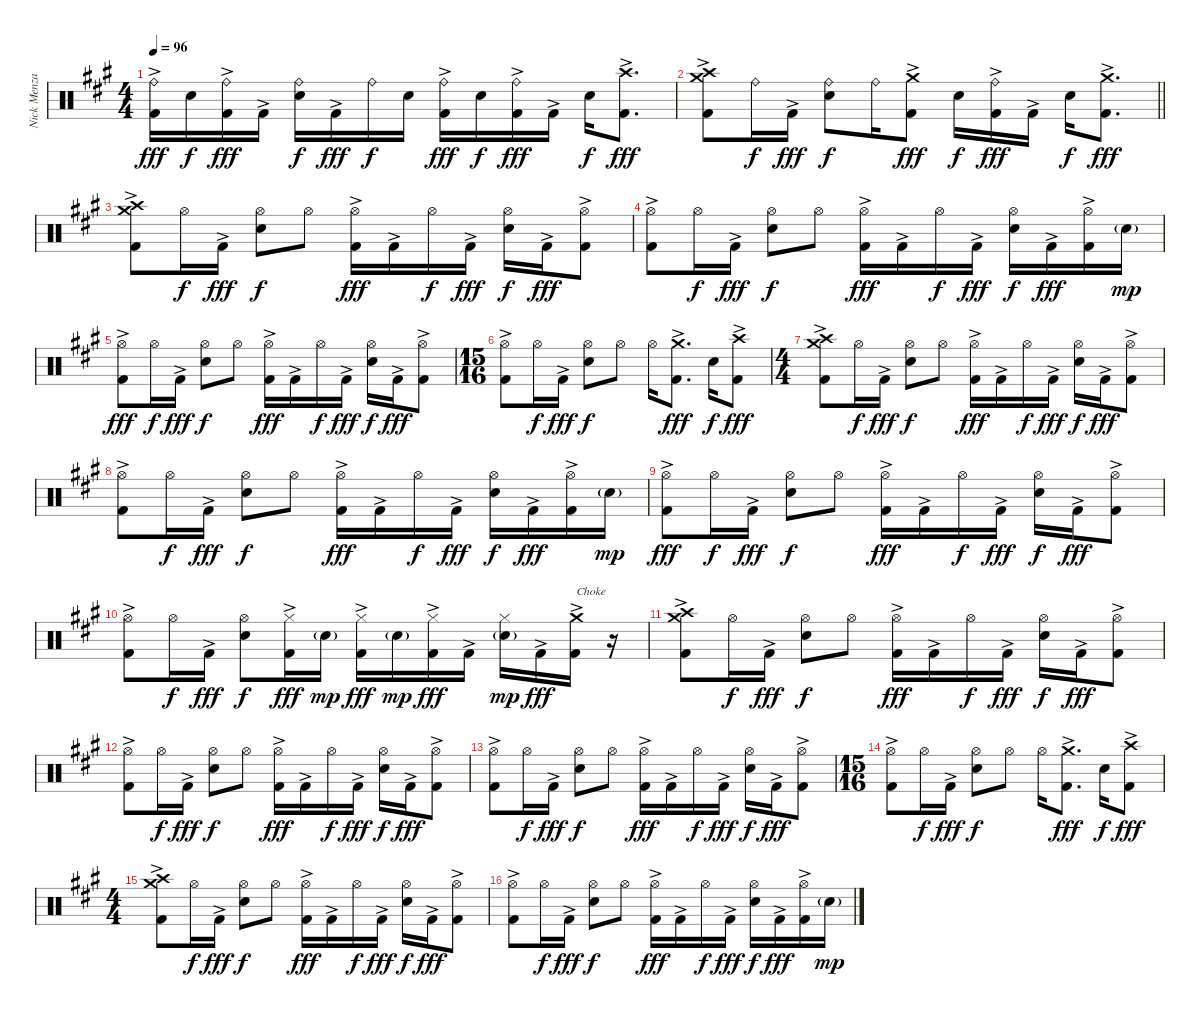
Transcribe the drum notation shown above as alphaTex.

\track ("Nick Menza" "Nick Menza") {instrument percussion}
\staff {score}
\articulation defaults
\ts (4 4)
\tempo 96
\clef neutral
\ks f#minor
("Ride (bell)" "Kick (hit) 2"{ac}).16{dy fff} "Snare (hit) 2".16{dy f} ("Ride (bell)" "Kick (hit) 2"{ac}).16{dy fff} "Kick (hit) 2"{ac}.16 ("Ride (bell)" "Snare (hit) 2").16{dy f} "Kick (hit) 2"{ac}.16{dy fff} "Ride (bell)".16{dy f} "Snare (hit) 2".16 ("Ride (bell)" "Kick (hit) 2"{ac}).16{dy fff} "Snare (hit) 2".16{dy f} ("Ride (bell)" "Kick (hit) 2"{ac}).16{dy fff} "Kick (hit) 2"{ac}.16 "Snare (hit) 2".16{dy f} ("Crash high (hit)" "Kick (hit) 2"{ac}).8{d dy fff} |
\barLineRight lightlight
("Crash high (hit)" "Crash medium (hit)" "Kick (hit) 2"{ac}).8 "Ride (bell)".16{dy f} "Kick (hit) 2"{ac}.16{dy fff} ("Ride (bell)" "Snare (hit) 2").8{dy f} "Ride (bell)".16 ("Crash medium (hit)" "Kick (hit) 2"{ac}).8{dy fff} "Snare (hit) 2".16{dy f} ("Ride (bell)" "Kick (hit) 2"{ac}).16{dy fff} "Kick (hit) 2"{ac}.16 "Snare (hit) 2".16{dy f} ("Crash medium (hit)" "Kick (hit) 2"{ac}).8{d dy fff} |
("Crash high (hit)" "Crash medium (hit)" "Kick (hit) 2"{ac}).8 "Hi-Hat (open)".16{dy f} "Kick (hit) 2"{ac}.16{dy fff} ("Hi-Hat (open)" "Snare (hit) 2").8{dy f} "Hi-Hat (open)".8 ("Hi-Hat (open)" "Kick (hit) 2"{ac}).16{dy fff} "Kick (hit) 2"{ac}.16 "Hi-Hat (open)".16{dy f} "Kick (hit) 2"{ac}.16{dy fff} ("Hi-Hat (open)" "Snare (hit) 2").16{dy f} "Kick (hit) 2"{ac}.16{dy fff} ("Hi-Hat (open)" "Kick (hit) 2"{ac}).8 |
("Hi-Hat (open)" "Kick (hit) 2"{ac}).8 "Hi-Hat (open)".16{dy f} "Kick (hit) 2"{ac}.16{dy fff} ("Hi-Hat (open)" "Snare (hit) 2").8{dy f} "Hi-Hat (open)".8 ("Hi-Hat (open)" "Kick (hit) 2"{ac}).16{dy fff} "Kick (hit) 2"{ac}.16 "Hi-Hat (open)".16{dy f} "Kick (hit) 2"{ac}.16{dy fff} ("Hi-Hat (open)" "Snare (hit) 2").16{dy f} "Kick (hit) 2"{ac}.16{dy fff} ("Hi-Hat (open)" "Kick (hit) 2"{ac}).16 "Snare (hit) 2"{g}.16{dy mp} |
("Hi-Hat (open)" "Kick (hit) 2"{ac}).8{dy fff} "Hi-Hat (open)".16{dy f} "Kick (hit) 2"{ac}.16{dy fff} ("Hi-Hat (open)" "Snare (hit) 2").8{dy f} "Hi-Hat (open)".8 ("Hi-Hat (open)" "Kick (hit) 2"{ac}).16{dy fff} "Kick (hit) 2"{ac}.16 "Hi-Hat (open)".16{dy f} "Kick (hit) 2"{ac}.16{dy fff} ("Hi-Hat (open)" "Snare (hit) 2").16{dy f} "Kick (hit) 2"{ac}.16{dy fff} ("Hi-Hat (open)" "Kick (hit) 2"{ac}).8 |
\ts (15 16)
("Hi-Hat (open)" "Kick (hit) 2"{ac}).8 "Hi-Hat (open)".16{dy f} "Kick (hit) 2"{ac}.16{dy fff} ("Hi-Hat (open)" "Snare (hit) 2").8{dy f} "Hi-Hat (open)".8 "Hi-Hat (open)".16 ("Crash medium (hit)" "Kick (hit) 2"{ac}).8{d dy fff} "Snare (hit) 2".16{dy f} ("Crash high (hit)" "Kick (hit) 2"{ac}).8{dy fff} |
\ts (4 4)
("Crash high (hit)" "Crash medium (hit)" "Kick (hit) 2"{ac}).8 "Hi-Hat (open)".16{dy f} "Kick (hit) 2"{ac}.16{dy fff} ("Hi-Hat (open)" "Snare (hit) 2").8{dy f} "Hi-Hat (open)".8 ("Hi-Hat (open)" "Kick (hit) 2"{ac}).16{dy fff} "Kick (hit) 2"{ac}.16 "Hi-Hat (open)".16{dy f} "Kick (hit) 2"{ac}.16{dy fff} ("Hi-Hat (open)" "Snare (hit) 2").16{dy f} "Kick (hit) 2"{ac}.16{dy fff} ("Hi-Hat (open)" "Kick (hit) 2"{ac}).8 |
("Hi-Hat (open)" "Kick (hit) 2"{ac}).8 "Hi-Hat (open)".16{dy f} "Kick (hit) 2"{ac}.16{dy fff} ("Hi-Hat (open)" "Snare (hit) 2").8{dy f} "Hi-Hat (open)".8 ("Hi-Hat (open)" "Kick (hit) 2"{ac}).16{dy fff} "Kick (hit) 2"{ac}.16 "Hi-Hat (open)".16{dy f} "Kick (hit) 2"{ac}.16{dy fff} ("Hi-Hat (open)" "Snare (hit) 2").16{dy f} "Kick (hit) 2"{ac}.16{dy fff} ("Hi-Hat (open)" "Kick (hit) 2"{ac}).16 "Snare (hit) 2"{g}.16{dy mp} |
("Hi-Hat (open)" "Kick (hit) 2"{ac}).8{dy fff} "Hi-Hat (open)".16{dy f} "Kick (hit) 2"{ac}.16{dy fff} ("Hi-Hat (open)" "Snare (hit) 2").8{dy f} "Hi-Hat (open)".8 ("Hi-Hat (open)" "Kick (hit) 2"{ac}).16{dy fff} "Kick (hit) 2"{ac}.16 "Hi-Hat (open)".16{dy f} "Kick (hit) 2"{ac}.16{dy fff} ("Hi-Hat (open)" "Snare (hit) 2").16{dy f} "Kick (hit) 2"{ac}.16{dy fff} ("Hi-Hat (open)" "Kick (hit) 2"{ac}).8 |
("Hi-Hat (open)" "Kick (hit) 2"{ac}).8 "Hi-Hat (open)".16{dy f} "Kick (hit) 2"{ac}.16{dy fff} ("Hi-Hat (open)" "Snare (hit) 2").8{dy f} ("Hi-Hat (closed)" "Kick (hit) 2"{ac}).16{dy fff} "Snare (hit) 2"{g}.16{dy mp} ("Hi-Hat (closed)" "Kick (hit) 2"{ac}).16{dy fff} "Snare (hit) 2"{g}.16{dy mp} ("Hi-Hat (closed)" "Kick (hit) 2"{ac}).16{dy fff} "Kick (hit) 2"{ac}.16 ("Hi-Hat (closed)" "Snare (hit) 2"{g}).16{dy mp} "Kick (hit) 2"{ac}.16{dy fff} ("Crash medium (hit)" "Kick (hit) 2"{ac}).16{txt "Choke"} r.16 |
("Crash high (hit)" "Crash medium (hit)" "Kick (hit) 2"{ac}).8 "Hi-Hat (open)".16{dy f} "Kick (hit) 2"{ac}.16{dy fff} ("Hi-Hat (open)" "Snare (hit) 2").8{dy f} "Hi-Hat (open)".8 ("Hi-Hat (open)" "Kick (hit) 2"{ac}).16{dy fff} "Kick (hit) 2"{ac}.16 "Hi-Hat (open)".16{dy f} "Kick (hit) 2"{ac}.16{dy fff} ("Hi-Hat (open)" "Snare (hit) 2").16{dy f} "Kick (hit) 2"{ac}.16{dy fff} ("Hi-Hat (open)" "Kick (hit) 2"{ac}).8 |
("Hi-Hat (open)" "Kick (hit) 2"{ac}).8 "Hi-Hat (open)".16{dy f} "Kick (hit) 2"{ac}.16{dy fff} ("Hi-Hat (open)" "Snare (hit) 2").8{dy f} "Hi-Hat (open)".8 ("Hi-Hat (open)" "Kick (hit) 2"{ac}).16{dy fff} "Kick (hit) 2"{ac}.16 "Hi-Hat (open)".16{dy f} "Kick (hit) 2"{ac}.16{dy fff} ("Hi-Hat (open)" "Snare (hit) 2").16{dy f} "Kick (hit) 2"{ac}.16{dy fff} ("Hi-Hat (open)" "Kick (hit) 2"{ac}).8 |
("Hi-Hat (open)" "Kick (hit) 2"{ac}).8 "Hi-Hat (open)".16{dy f} "Kick (hit) 2"{ac}.16{dy fff} ("Hi-Hat (open)" "Snare (hit) 2").8{dy f} "Hi-Hat (open)".8 ("Hi-Hat (open)" "Kick (hit) 2"{ac}).16{dy fff} "Kick (hit) 2"{ac}.16 "Hi-Hat (open)".16{dy f} "Kick (hit) 2"{ac}.16{dy fff} ("Hi-Hat (open)" "Snare (hit) 2").16{dy f} "Kick (hit) 2"{ac}.16{dy fff} ("Hi-Hat (open)" "Kick (hit) 2"{ac}).8 |
\ts (15 16)
("Hi-Hat (open)" "Kick (hit) 2"{ac}).8 "Hi-Hat (open)".16{dy f} "Kick (hit) 2"{ac}.16{dy fff} ("Hi-Hat (open)" "Snare (hit) 2").8{dy f} "Hi-Hat (open)".8 "Hi-Hat (open)".16 ("Crash medium (hit)" "Kick (hit) 2"{ac}).8{d dy fff} "Snare (hit) 2".16{dy f} ("Crash high (hit)" "Kick (hit) 2"{ac}).8{dy fff} |
\ts (4 4)
("Crash high (hit)" "Crash medium (hit)" "Kick (hit) 2"{ac}).8 "Hi-Hat (open)".16{dy f} "Kick (hit) 2"{ac}.16{dy fff} ("Hi-Hat (open)" "Snare (hit) 2").8{dy f} "Hi-Hat (open)".8 ("Hi-Hat (open)" "Kick (hit) 2"{ac}).16{dy fff} "Kick (hit) 2"{ac}.16 "Hi-Hat (open)".16{dy f} "Kick (hit) 2"{ac}.16{dy fff} ("Hi-Hat (open)" "Snare (hit) 2").16{dy f} "Kick (hit) 2"{ac}.16{dy fff} ("Hi-Hat (open)" "Kick (hit) 2"{ac}).8 |
("Hi-Hat (open)" "Kick (hit) 2"{ac}).8 "Hi-Hat (open)".16{dy f} "Kick (hit) 2"{ac}.16{dy fff} ("Hi-Hat (open)" "Snare (hit) 2").8{dy f} "Hi-Hat (open)".8 ("Hi-Hat (open)" "Kick (hit) 2"{ac}).16{dy fff} "Kick (hit) 2"{ac}.16 "Hi-Hat (open)".16{dy f} "Kick (hit) 2"{ac}.16{dy fff} ("Hi-Hat (open)" "Snare (hit) 2").16{dy f} "Kick (hit) 2"{ac}.16{dy fff} ("Hi-Hat (open)" "Kick (hit) 2"{ac}).16 "Snare (hit) 2"{g}.16{dy mp}
